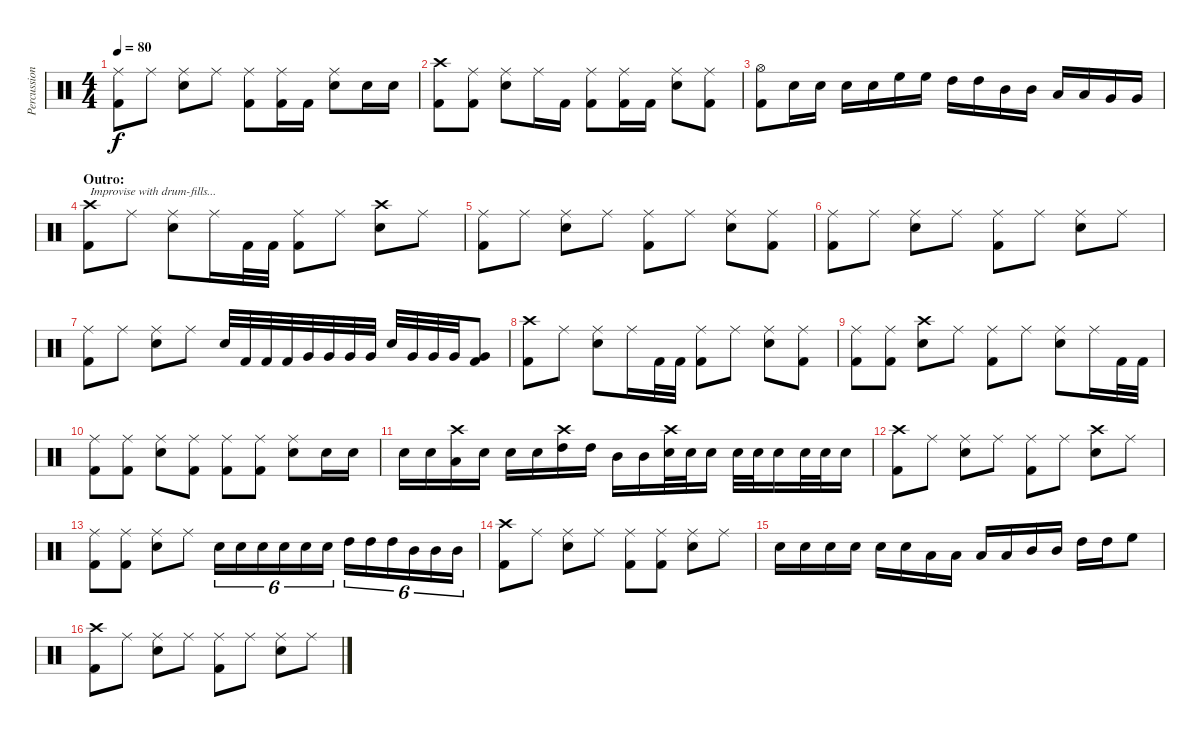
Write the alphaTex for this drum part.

\track ("Percussion" "Percussion") {instrument percussion}
\staff {score}
\articulation defaults
\ts (4 4)
\tempo 80
\clef neutral
\ks c
("Ride (middle)" "Kick (hit) 2").8{dy f} "Ride (middle)".8 ("Ride (middle)" "Electric Snare (hit)").8 "Ride (middle)".8 ("Ride (middle)" "Kick (hit) 2").8 ("Ride (middle)" "Kick (hit) 2").16 "Kick (hit) 2".16 ("Ride (middle)" "Electric Snare (hit)").8 "Electric Snare (hit)".16 "Electric Snare (hit)".16 |
("Crash high (hit)" "Kick (hit) 2").8 ("Ride (middle)" "Kick (hit) 2").8 ("Ride (middle)" "Electric Snare (hit)").8 "Ride (middle)".16 "Kick (hit) 2".16 ("Ride (middle)" "Kick (hit) 2").8 ("Ride (middle)" "Kick (hit) 2").16 "Kick (hit) 2".16 ("Ride (middle)" "Electric Snare (hit)").8 ("Ride (middle)" "Kick (hit) 2").8 |
("Hi-Hat (open)" "Kick (hit) 2").8 "Electric Snare (hit)".16 "Electric Snare (hit)".16 "Electric Snare (hit)".16 "Electric Snare (hit)".16 "High Floor Tom (hit)".16 "High Floor Tom (hit)".16 "High Tom (hit)".16 "High Tom (hit)".16 "Mid Tom (hit)".16 "Mid Tom (hit)".16 "Low Tom (hit)".16 "Low Tom (hit)".16 "Very Low Tom (hit)".16 "Very Low Tom (hit)".16 |
\section ("" "Outro:")
("Crash high (hit)" "Kick (hit) 2").8{txt "Improvise with drum-fills..."} "Ride (middle)".8 ("Ride (middle)" "Electric Snare (hit)").8 "Ride (middle)".16 "Kick (hit) 2".32 "Kick (hit) 2".32 ("Ride (middle)" "Kick (hit) 2").8 "Ride (middle)".8 ("Crash high (hit)" "Electric Snare (hit)").8 "Ride (middle)".8 |
("Ride (middle)" "Kick (hit) 2").8 "Ride (middle)".8 ("Ride (middle)" "Electric Snare (hit)").8 "Ride (middle)".8 ("Ride (middle)" "Kick (hit) 2").8 "Ride (middle)".8 ("Ride (middle)" "Electric Snare (hit)").8 ("Ride (middle)" "Kick (hit) 2").8 |
("Ride (middle)" "Kick (hit) 2").8 "Ride (middle)".8 ("Ride (middle)" "Electric Snare (hit)").8 "Ride (middle)".8 ("Ride (middle)" "Kick (hit) 2").8 "Ride (middle)".8 ("Ride (middle)" "Electric Snare (hit)").8 "Ride (middle)".8 |
("Ride (middle)" "Kick (hit) 2").8 "Ride (middle)".8 ("Ride (middle)" "Electric Snare (hit)").8 "Ride (middle)".8 "Electric Snare (hit)".32 "Kick (hit) 2".32 "Kick (hit) 2".32 "Kick (hit) 2".32 "Very Low Tom (hit)".32 "Very Low Tom (hit)".32 "Very Low Tom (hit)".32 "Very Low Tom (hit)".32 "Electric Snare (hit)".32 "Very Low Tom (hit)".32 "Very Low Tom (hit)".32 "Very Low Tom (hit)".32 ("Very Low Tom (hit)" "Kick (hit) 2").8 |
("Crash high (hit)" "Kick (hit) 2").8 "Ride (middle)".8 ("Ride (middle)" "Electric Snare (hit)").8 "Ride (middle)".16 "Kick (hit) 2".32 "Kick (hit) 2".32 ("Ride (middle)" "Kick (hit) 2").8 "Ride (middle)".8 ("Ride (middle)" "Electric Snare (hit)").8 ("Ride (middle)" "Kick (hit) 2").8 |
("Ride (middle)" "Kick (hit) 2").8 ("Ride (middle)" "Kick (hit) 2").8 ("Crash high (hit)" "Electric Snare (hit)").8 "Ride (middle)".8 ("Ride (middle)" "Kick (hit) 2").8 "Ride (middle)".8 ("Ride (middle)" "Electric Snare (hit)").8 "Ride (middle)".16 "Kick (hit) 2".32 "Kick (hit) 2".32 |
("Ride (middle)" "Kick (hit) 2").8 ("Ride (middle)" "Kick (hit) 2").8 ("Ride (middle)" "Electric Snare (hit)").8 ("Ride (middle)" "Kick (hit) 2").8 ("Ride (middle)" "Kick (hit) 2").8 ("Ride (middle)" "Kick (hit) 2").8 ("Ride (middle)" "Electric Snare (hit)").8 "Electric Snare (hit)".16 "Electric Snare (hit)".16 |
"Electric Snare (hit)".16 "Electric Snare (hit)".16 ("Crash high (hit)" "Low Tom (hit)").16 "Electric Snare (hit)".16 "Electric Snare (hit)".16 "Electric Snare (hit)".16 ("Crash high (hit)" "High Tom (hit)").16 "High Tom (hit)".16 "Mid Tom (hit)".16 "Mid Tom (hit)".16 ("Crash high (hit)" "Electric Snare (hit)").32 "Electric Snare (hit)".32 "Electric Snare (hit)".16 "Electric Snare (hit)".32 "Electric Snare (hit)".32 "Electric Snare (hit)".16 "Electric Snare (hit)".32 "Electric Snare (hit)".32 "Electric Snare (hit)".16 |
("Crash high (hit)" "Kick (hit) 2").8 "Ride (middle)".8 ("Ride (middle)" "Electric Snare (hit)").8 "Ride (middle)".8 ("Ride (middle)" "Kick (hit) 2").8 "Ride (middle)".8 ("Crash high (hit)" "Electric Snare (hit)").8 "Ride (middle)".8 |
("Ride (middle)" "Kick (hit) 2").8 ("Ride (middle)" "Kick (hit) 2").8 ("Ride (middle)" "Electric Snare (hit)").8 "Ride (middle)".8 "Electric Snare (hit)".16{tu (6 4)} "Electric Snare (hit)".16{tu (6 4)} "Electric Snare (hit)".16{tu (6 4)} "Electric Snare (hit)".16{tu (6 4)} "Electric Snare (hit)".16{tu (6 4)} "Electric Snare (hit)".16{tu (6 4)} "High Tom (hit)".16{tu (6 4)} "High Tom (hit)".16{tu (6 4)} "High Tom (hit)".16{tu (6 4)} "Mid Tom (hit)".16{tu (6 4)} "Mid Tom (hit)".16{tu (6 4)} "Mid Tom (hit)".16{tu (6 4)} |
("Crash high (hit)" "Kick (hit) 2").8 "Ride (middle)".8 ("Ride (middle)" "Electric Snare (hit)").8 "Ride (middle)".8 ("Ride (middle)" "Kick (hit) 2").8 ("Ride (middle)" "Kick (hit) 2").8 ("Ride (middle)" "Electric Snare (hit)").8 "Ride (middle)".8 |
"Electric Snare (hit)".16 "Electric Snare (hit)".16 "Electric Snare (hit)".16 "Electric Snare (hit)".16 "Electric Snare (hit)".16 "Electric Snare (hit)".16 "Low Tom (hit)".16 "Low Tom (hit)".16 "Low Tom (hit)".16 "Low Tom (hit)".16 "Mid Tom (hit)".16 "Mid Tom (hit)".16 "High Tom (hit)".16 "High Tom (hit)".16 "High Floor Tom (hit)".8 |
("Crash high (hit)" "Kick (hit) 2").8 "Ride (middle)".8 ("Ride (middle)" "Electric Snare (hit)").8 "Ride (middle)".8 ("Ride (middle)" "Kick (hit) 2").8 "Ride (middle)".8 ("Ride (middle)" "Electric Snare (hit)").8 "Ride (middle)".8
